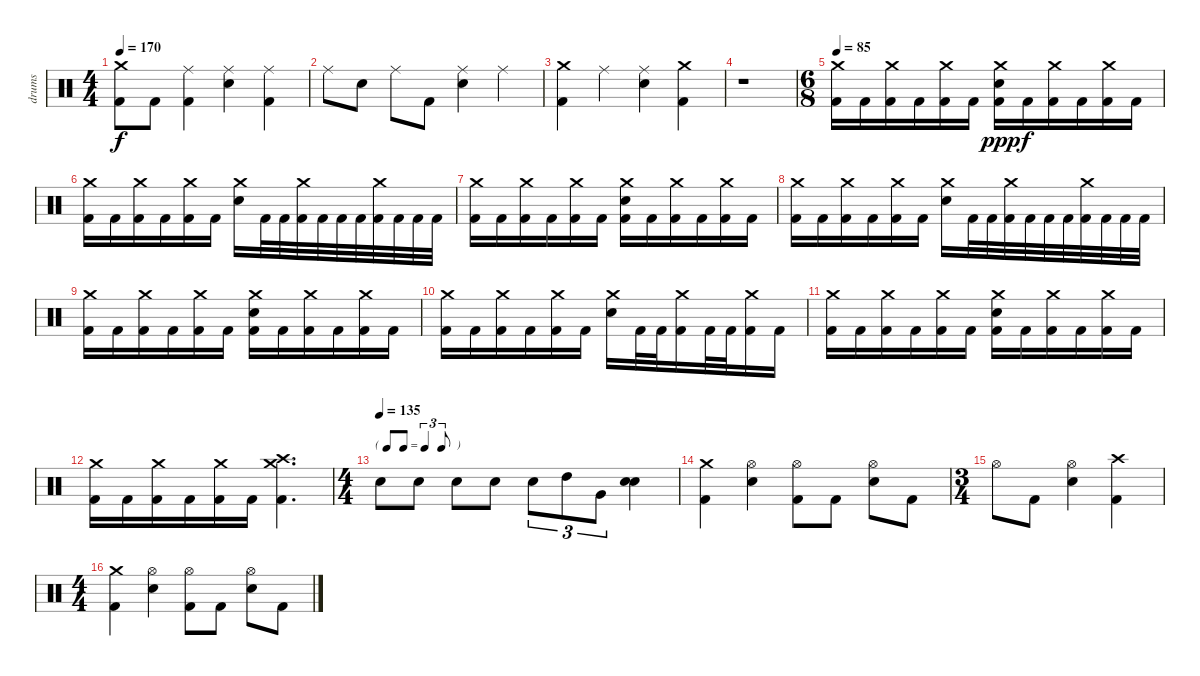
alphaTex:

\track ("drums" "drums") {instrument percussion}
\staff {score}
\articulation defaults
\ts (4 4)
\tempo 170
\clef neutral
\ks c
("Crash medium (hit)" "Kick (hit) 2").8{dy f} "Kick (hit) 2".8 ("Ride (middle)" "Kick (hit) 2").4 ("Ride (middle)" "Electric Snare (hit)").4 ("Ride (middle)" "Kick (hit) 2").4 |
"Ride (middle)".8 "Electric Snare (hit)".8 "Ride (middle)".8 "Kick (hit) 2".8 ("Ride (middle)" "Electric Snare (hit)").4 "Ride (middle)".4 |
("Crash medium (hit)" "Kick (hit) 2").4 "Ride (middle)".4 ("Ride (middle)" "Electric Snare (hit)").4 ("Crash medium (hit)" "Kick (hit) 2").4 |
r.1 |
\ts (6 8)
\tempo 85
("Crash medium (hit)" "Kick (hit) 2").16 "Kick (hit) 2".16 ("Crash medium (hit)" "Kick (hit) 2").16 "Kick (hit) 2".16 ("Crash medium (hit)" "Kick (hit) 2").16 "Kick (hit) 2".16 ("Crash medium (hit)" "Electric Snare (hit)" "Kick (hit) 2").16{dy ppp} "Kick (hit) 2".16{dy f} ("Crash medium (hit)" "Kick (hit) 2").16 "Kick (hit) 2".16 ("Crash medium (hit)" "Kick (hit) 2").16 "Kick (hit) 2".16 |
("Crash medium (hit)" "Kick (hit) 2").16 "Kick (hit) 2".16 ("Crash medium (hit)" "Kick (hit) 2").16 "Kick (hit) 2".16 ("Crash medium (hit)" "Kick (hit) 2").16 "Kick (hit) 2".16 ("Crash medium (hit)" "Electric Snare (hit)").16 "Kick (hit) 2".32 "Kick (hit) 2".32 ("Crash medium (hit)" "Kick (hit) 2").32 "Kick (hit) 2".32 "Kick (hit) 2".32 "Kick (hit) 2".32 ("Crash medium (hit)" "Kick (hit) 2").32 "Kick (hit) 2".32 "Kick (hit) 2".32 "Kick (hit) 2".32 |
("Crash medium (hit)" "Kick (hit) 2").16 "Kick (hit) 2".16 ("Crash medium (hit)" "Kick (hit) 2").16 "Kick (hit) 2".16 ("Crash medium (hit)" "Kick (hit) 2").16 "Kick (hit) 2".16 ("Crash medium (hit)" "Electric Snare (hit)" "Kick (hit) 2").16 "Kick (hit) 2".16 ("Crash medium (hit)" "Kick (hit) 2").16 "Kick (hit) 2".16 ("Crash medium (hit)" "Kick (hit) 2").16 "Kick (hit) 2".16 |
("Crash medium (hit)" "Kick (hit) 2").16 "Kick (hit) 2".16 ("Crash medium (hit)" "Kick (hit) 2").16 "Kick (hit) 2".16 ("Crash medium (hit)" "Kick (hit) 2").16 "Kick (hit) 2".16 ("Crash medium (hit)" "Electric Snare (hit)").16 "Kick (hit) 2".32 "Kick (hit) 2".32 ("Crash medium (hit)" "Kick (hit) 2").32 "Kick (hit) 2".32 "Kick (hit) 2".32 "Kick (hit) 2".32 ("Crash medium (hit)" "Kick (hit) 2").32 "Kick (hit) 2".32 "Kick (hit) 2".32 "Kick (hit) 2".32 |
("Crash medium (hit)" "Kick (hit) 2").16 "Kick (hit) 2".16 ("Crash medium (hit)" "Kick (hit) 2").16 "Kick (hit) 2".16 ("Crash medium (hit)" "Kick (hit) 2").16 "Kick (hit) 2".16 ("Crash medium (hit)" "Electric Snare (hit)" "Kick (hit) 2").16 "Kick (hit) 2".16 ("Crash medium (hit)" "Kick (hit) 2").16 "Kick (hit) 2".16 ("Crash medium (hit)" "Kick (hit) 2").16 "Kick (hit) 2".16 |
("Crash medium (hit)" "Kick (hit) 2").16 "Kick (hit) 2".16 ("Crash medium (hit)" "Kick (hit) 2").16 "Kick (hit) 2".16 ("Crash medium (hit)" "Kick (hit) 2").16 "Kick (hit) 2".16 ("Crash medium (hit)" "Electric Snare (hit)").16 "Kick (hit) 2".32 "Kick (hit) 2".32 ("Crash medium (hit)" "Kick (hit) 2").16 "Kick (hit) 2".32 "Kick (hit) 2".32 ("Crash medium (hit)" "Kick (hit) 2").16 "Kick (hit) 2".16 |
("Crash medium (hit)" "Kick (hit) 2").16 "Kick (hit) 2".16 ("Crash medium (hit)" "Kick (hit) 2").16 "Kick (hit) 2".16 ("Crash medium (hit)" "Kick (hit) 2").16 "Kick (hit) 2".16 ("Crash medium (hit)" "Electric Snare (hit)" "Kick (hit) 2").16 "Kick (hit) 2".16 ("Crash medium (hit)" "Kick (hit) 2").16 "Kick (hit) 2".16 ("Crash medium (hit)" "Kick (hit) 2").16 "Kick (hit) 2".16 |
("Crash medium (hit)" "Kick (hit) 2").16 "Kick (hit) 2".16 ("Crash medium (hit)" "Kick (hit) 2").16 "Kick (hit) 2".16 ("Crash medium (hit)" "Kick (hit) 2").16 "Kick (hit) 2".16 ("Crash medium (hit)" "Crash high (hit)" "Kick (hit) 2").4{d} |
\ts (4 4)
\tf triplet8th
\tempo (135)
"Electric Snare (hit)".8 "Electric Snare (hit)".8 "Electric Snare (hit)".8 "Electric Snare (hit)".8 "Electric Snare (hit)".8{tu (3 2)} "High Tom (hit)".8{tu (3 2)} "Very Low Tom (hit)".8{tu (3 2)} ("Electric Snare (hit)" "Electric Snare (hit)").4 |
("Crash medium (hit)" "Kick (hit) 2").4 ("Hi-Hat (open)" "Electric Snare (hit)").4 ("Hi-Hat (open)" "Kick (hit) 2").8 "Kick (hit) 2".8 ("Hi-Hat (open)" "Electric Snare (hit)").8 "Kick (hit) 2".8 |
\ts (3 4)
"Hi-Hat (open)".8 "Kick (hit) 2".8 ("Hi-Hat (open)" "Electric Snare (hit)").4 ("Crash high (hit)" "Kick (hit) 2").4 |
\ts (4 4)
("Crash medium (hit)" "Kick (hit) 2").4 ("Hi-Hat (open)" "Electric Snare (hit)").4 ("Hi-Hat (open)" "Kick (hit) 2").8 "Kick (hit) 2".8 ("Hi-Hat (open)" "Electric Snare (hit)").8 "Kick (hit) 2".8
